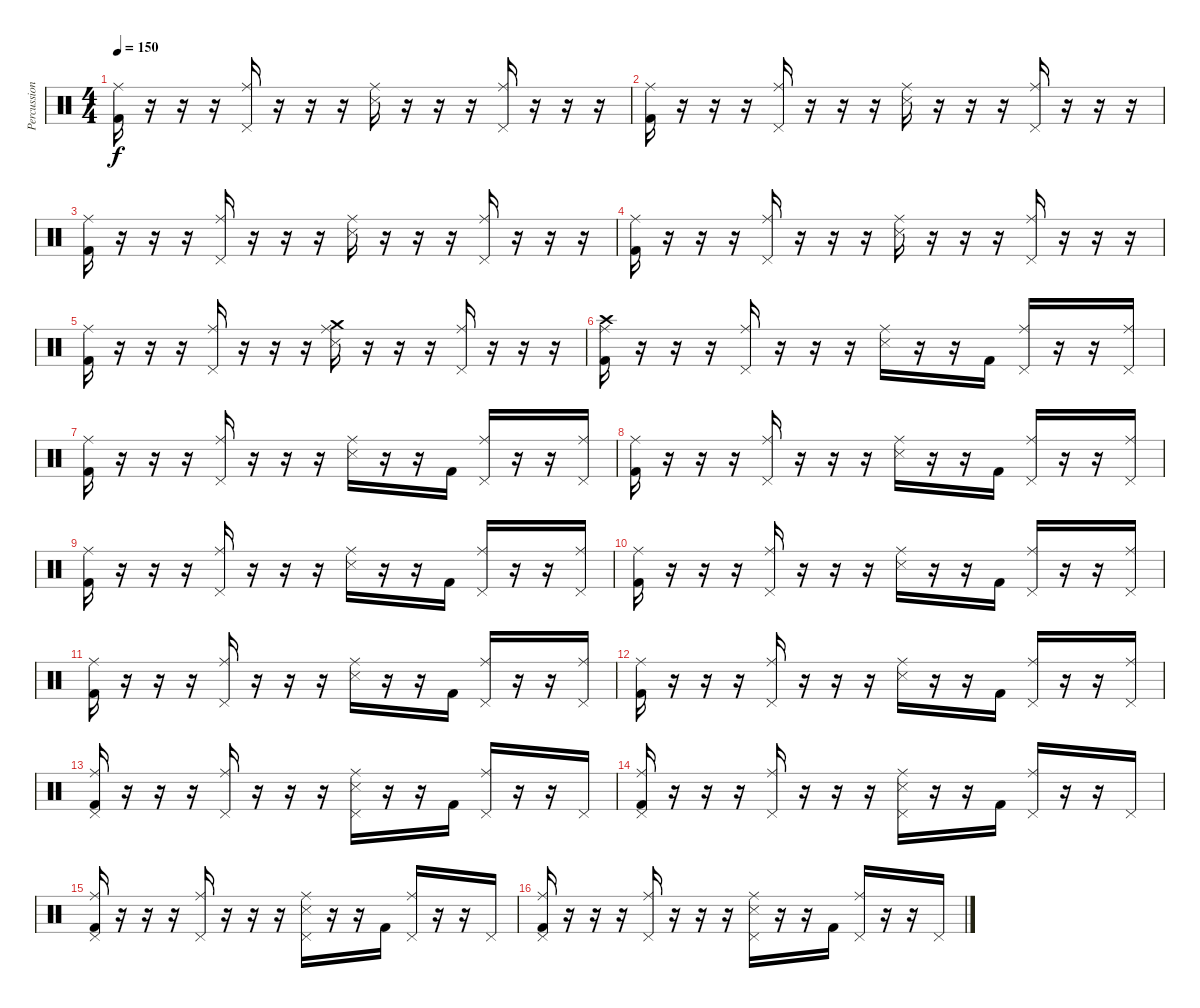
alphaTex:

\track ("Percussion" "Percussion") {instrument percussion}
\staff {score}
\articulation defaults
\ts (4 4)
\tempo 150
\clef neutral
\ks c
("Ride (middle)" "Kick (hit) 2").16{dy f} r.16 r.16 r.16 ("Ride (middle)" "Pedal Hi-Hat (hit)").16 r.16 r.16 r.16 ("Ride (middle)" "Snare (side stick) 3").16 r.16 r.16 r.16 ("Ride (middle)" "Pedal Hi-Hat (hit)").16 r.16 r.16 r.16 |
("Ride (middle)" "Kick (hit) 2").16 r.16 r.16 r.16 ("Ride (middle)" "Pedal Hi-Hat (hit)").16 r.16 r.16 r.16 ("Ride (middle)" "Snare (side stick) 3").16 r.16 r.16 r.16 ("Ride (middle)" "Pedal Hi-Hat (hit)").16 r.16 r.16 r.16 |
("Ride (middle)" "Kick (hit) 2").16 r.16 r.16 r.16 ("Ride (middle)" "Pedal Hi-Hat (hit)").16 r.16 r.16 r.16 ("Ride (middle)" "Snare (side stick) 3").16 r.16 r.16 r.16 ("Ride (middle)" "Pedal Hi-Hat (hit)").16 r.16 r.16 r.16 |
("Ride (middle)" "Kick (hit) 2").16 r.16 r.16 r.16 ("Ride (middle)" "Pedal Hi-Hat (hit)").16 r.16 r.16 r.16 ("Ride (middle)" "Snare (side stick) 3").16 r.16 r.16 r.16 ("Ride (middle)" "Pedal Hi-Hat (hit)").16 r.16 r.16 r.16 |
("Ride (middle)" "Kick (hit) 2").16 r.16 r.16 r.16 ("Ride (middle)" "Pedal Hi-Hat (hit)").16 r.16 r.16 r.16 ("Crash medium (hit)" "Ride (middle)" "Snare (side stick) 3").16 r.16 r.16 r.16 ("Ride (middle)" "Pedal Hi-Hat (hit)").16 r.16 r.16 r.16 |
("Crash high (hit)" "Ride (middle)" "Kick (hit) 2").16 r.16 r.16 r.16 ("Ride (middle)" "Pedal Hi-Hat (hit)").16 r.16 r.16 r.16 ("Ride (middle)" "Snare (side stick) 3").16 r.16 r.16 "Kick (hit) 2".16 ("Ride (middle)" "Pedal Hi-Hat (hit)").16 r.16 r.16 ("Ride (middle)" "Pedal Hi-Hat (hit)").16 |
("Ride (middle)" "Kick (hit) 2").16 r.16 r.16 r.16 ("Ride (middle)" "Pedal Hi-Hat (hit)").16 r.16 r.16 r.16 ("Ride (middle)" "Snare (side stick) 3").16 r.16 r.16 "Kick (hit) 2".16 ("Ride (middle)" "Pedal Hi-Hat (hit)").16 r.16 r.16 ("Ride (middle)" "Pedal Hi-Hat (hit)").16 |
("Ride (middle)" "Kick (hit) 2").16 r.16 r.16 r.16 ("Ride (middle)" "Pedal Hi-Hat (hit)").16 r.16 r.16 r.16 ("Ride (middle)" "Snare (side stick) 3").16 r.16 r.16 "Kick (hit) 2".16 ("Ride (middle)" "Pedal Hi-Hat (hit)").16 r.16 r.16 ("Ride (middle)" "Pedal Hi-Hat (hit)").16 |
("Ride (middle)" "Kick (hit) 2").16 r.16 r.16 r.16 ("Ride (middle)" "Pedal Hi-Hat (hit)").16 r.16 r.16 r.16 ("Ride (middle)" "Snare (side stick) 3").16 r.16 r.16 "Kick (hit) 2".16 ("Ride (middle)" "Pedal Hi-Hat (hit)").16 r.16 r.16 ("Ride (middle)" "Pedal Hi-Hat (hit)").16 |
("Ride (middle)" "Kick (hit) 2").16 r.16 r.16 r.16 ("Ride (middle)" "Pedal Hi-Hat (hit)").16 r.16 r.16 r.16 ("Ride (middle)" "Snare (side stick) 3").16 r.16 r.16 "Kick (hit) 2".16 ("Ride (middle)" "Pedal Hi-Hat (hit)").16 r.16 r.16 ("Ride (middle)" "Pedal Hi-Hat (hit)").16 |
("Ride (middle)" "Kick (hit) 2").16 r.16 r.16 r.16 ("Ride (middle)" "Pedal Hi-Hat (hit)").16 r.16 r.16 r.16 ("Ride (middle)" "Snare (side stick) 3").16 r.16 r.16 "Kick (hit) 2".16 ("Ride (middle)" "Pedal Hi-Hat (hit)").16 r.16 r.16 ("Ride (middle)" "Pedal Hi-Hat (hit)").16 |
("Ride (middle)" "Kick (hit) 2").16 r.16 r.16 r.16 ("Ride (middle)" "Pedal Hi-Hat (hit)").16 r.16 r.16 r.16 ("Ride (middle)" "Snare (side stick) 3").16 r.16 r.16 "Kick (hit) 2".16 ("Ride (middle)" "Pedal Hi-Hat (hit)").16 r.16 r.16 ("Ride (middle)" "Pedal Hi-Hat (hit)").16 |
("Ride (middle)" "Pedal Hi-Hat (hit)" "Kick (hit) 2").16 r.16 r.16 r.16 ("Ride (middle)" "Pedal Hi-Hat (hit)").16 r.16 r.16 r.16 ("Ride (middle)" "Pedal Hi-Hat (hit)" "Snare (side stick) 3").16 r.16 r.16 "Kick (hit) 2".16 ("Ride (middle)" "Pedal Hi-Hat (hit)").16 r.16 r.16 "Pedal Hi-Hat (hit)".16 |
("Ride (middle)" "Pedal Hi-Hat (hit)" "Kick (hit) 2").16 r.16 r.16 r.16 ("Ride (middle)" "Pedal Hi-Hat (hit)").16 r.16 r.16 r.16 ("Ride (middle)" "Pedal Hi-Hat (hit)" "Snare (side stick) 3").16 r.16 r.16 "Kick (hit) 2".16 ("Ride (middle)" "Pedal Hi-Hat (hit)").16 r.16 r.16 "Pedal Hi-Hat (hit)".16 |
("Ride (middle)" "Pedal Hi-Hat (hit)" "Kick (hit) 2").16 r.16 r.16 r.16 ("Ride (middle)" "Pedal Hi-Hat (hit)").16 r.16 r.16 r.16 ("Ride (middle)" "Pedal Hi-Hat (hit)" "Snare (side stick) 3").16 r.16 r.16 "Kick (hit) 2".16 ("Ride (middle)" "Pedal Hi-Hat (hit)").16 r.16 r.16 "Pedal Hi-Hat (hit)".16 |
("Ride (middle)" "Pedal Hi-Hat (hit)" "Kick (hit) 2").16 r.16 r.16 r.16 ("Ride (middle)" "Pedal Hi-Hat (hit)").16 r.16 r.16 r.16 ("Ride (middle)" "Pedal Hi-Hat (hit)" "Snare (side stick) 3").16 r.16 r.16 "Kick (hit) 2".16 ("Ride (middle)" "Pedal Hi-Hat (hit)").16 r.16 r.16 "Pedal Hi-Hat (hit)".16
